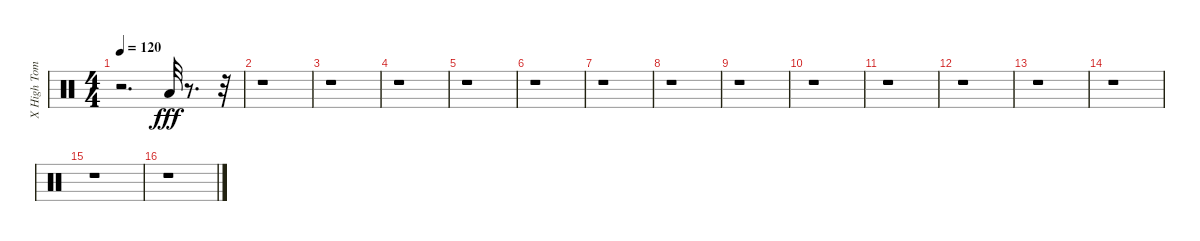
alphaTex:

\track ("X High Tom          " "X High Tom") {instrument percussion}
\staff {score}
\articulation defaults
\ts (4 4)
\tempo 120
\clef neutral
\ks c
r.2{d dy fff} "Low Tom (hit)".32 r.8{d} r.32 |
r.1 |
r.1 |
r.1 |
r.1 |
r.1 |
r.1 |
r.1 |
r.1 |
r.1 |
r.1 |
r.1 |
r.1 |
r.1 |
r.1 |
r.1
